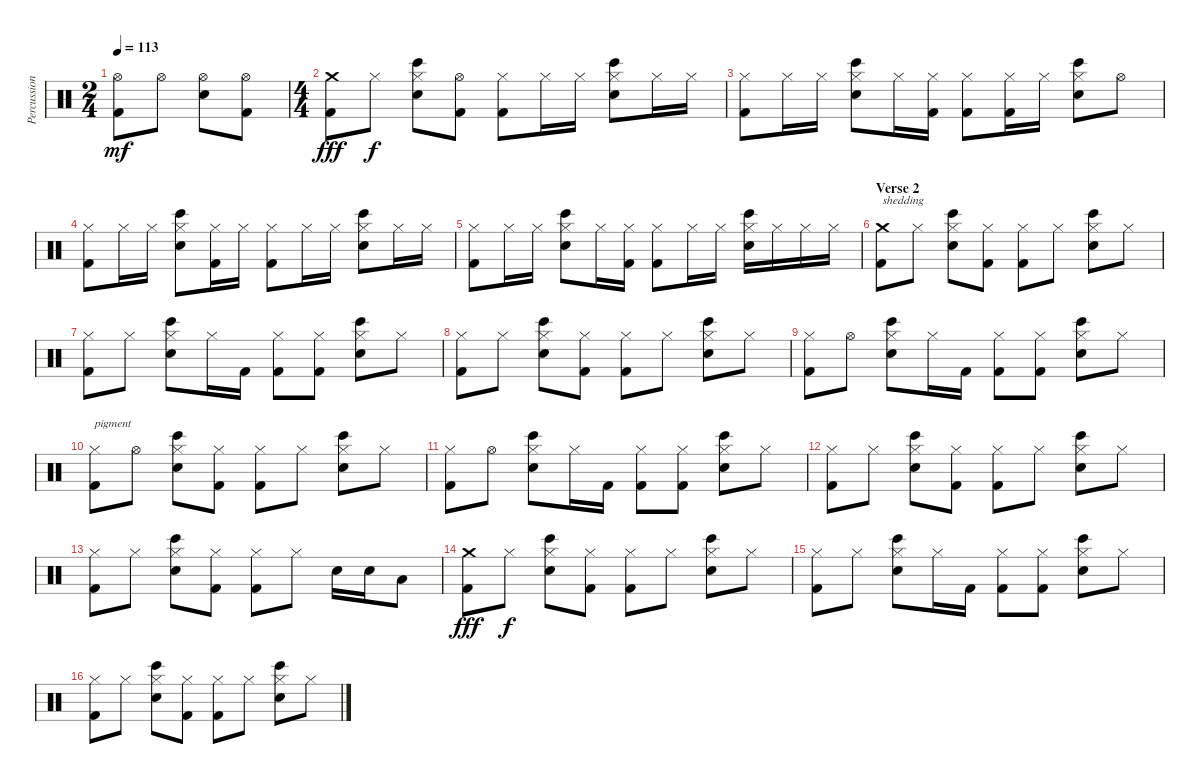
\track ("Percussion" "Percussion") {instrument percussion}
\staff {score}
\articulation defaults
\ts (2 4)
\tempo 113
\clef neutral
\ks c
("Hi-Hat (open)" "Kick (hit) 2").8{dy mf} "Hi-Hat (open)".8 ("Hi-Hat (open)" "Electric Snare (hit)").8 ("Hi-Hat (open)" "Kick (hit) 2").8 |
\ts (4 4)
("Crash medium (hit)" "Kick (hit) 2").8{dy fff} "Hi-Hat (closed)".8{dy f} ("Hi-Hat (closed)" "Electric Snare (hit)" "Bongo High (hit)").8 ("Hi-Hat (open)" "Kick (hit) 2").8 ("Hi-Hat (closed)" "Kick (hit) 2").8 "Hi-Hat (closed)".16 "Hi-Hat (closed)".16 ("Hi-Hat (closed)" "Electric Snare (hit)" "Bongo High (hit)").8 "Hi-Hat (closed)".16 "Hi-Hat (closed)".16 |
("Hi-Hat (closed)" "Kick (hit) 2").8 "Hi-Hat (closed)".16 "Hi-Hat (closed)".16 ("Hi-Hat (closed)" "Electric Snare (hit)" "Bongo High (hit)").8 "Hi-Hat (closed)".16 ("Hi-Hat (closed)" "Kick (hit) 2").16 ("Hi-Hat (closed)" "Kick (hit) 2").8 ("Hi-Hat (closed)" "Kick (hit) 2").16 "Hi-Hat (closed)".16 ("Hi-Hat (closed)" "Electric Snare (hit)" "Bongo High (hit)").8 "Hi-Hat (open)".8 |
("Hi-Hat (closed)" "Kick (hit) 2").8 "Hi-Hat (closed)".16 "Hi-Hat (closed)".16 ("Hi-Hat (closed)" "Electric Snare (hit)" "Bongo High (hit)").8 ("Hi-Hat (closed)" "Kick (hit) 2").16 "Hi-Hat (closed)".16 ("Hi-Hat (closed)" "Kick (hit) 2").8 "Hi-Hat (closed)".16 "Hi-Hat (closed)".16 ("Hi-Hat (closed)" "Electric Snare (hit)" "Bongo High (hit)").8 "Hi-Hat (closed)".16 "Hi-Hat (closed)".16 |
("Hi-Hat (closed)" "Kick (hit) 2").8 "Hi-Hat (closed)".16 "Hi-Hat (closed)".16 ("Hi-Hat (closed)" "Electric Snare (hit)" "Bongo High (hit)").8 "Hi-Hat (closed)".16 ("Hi-Hat (closed)" "Kick (hit) 2").16 ("Hi-Hat (closed)" "Kick (hit) 2").8 "Hi-Hat (closed)".16 "Hi-Hat (closed)".16 ("Hi-Hat (closed)" "Electric Snare (hit)" "Bongo High (hit)").16 "Hi-Hat (closed)".16 "Hi-Hat (closed)".16 "Hi-Hat (closed)".16 |
\section ("" "Verse 2")
("Crash medium (hit)" "Kick (hit) 2").8{txt "shedding"} "Hi-Hat (closed)".8 ("Hi-Hat (closed)" "Electric Snare (hit)" "Bongo High (hit)").8 ("Hi-Hat (closed)" "Kick (hit) 2").8 ("Hi-Hat (closed)" "Kick (hit) 2").8 "Hi-Hat (closed)".8 ("Hi-Hat (closed)" "Electric Snare (hit)" "Bongo High (hit)").8 "Hi-Hat (closed)".8 |
("Hi-Hat (closed)" "Kick (hit) 2").8 "Hi-Hat (closed)".8 ("Hi-Hat (closed)" "Electric Snare (hit)" "Bongo High (hit)").8 "Hi-Hat (closed)".16 "Kick (hit) 2".16 ("Hi-Hat (closed)" "Kick (hit) 2").8 ("Hi-Hat (closed)" "Kick (hit) 2").8 ("Hi-Hat (closed)" "Electric Snare (hit)" "Bongo High (hit)").8 "Hi-Hat (closed)".8 |
("Hi-Hat (closed)" "Kick (hit) 2").8 "Hi-Hat (closed)".8 ("Hi-Hat (closed)" "Electric Snare (hit)" "Bongo High (hit)").8 ("Hi-Hat (closed)" "Kick (hit) 2").8 ("Hi-Hat (closed)" "Kick (hit) 2").8 "Hi-Hat (closed)".8 ("Hi-Hat (closed)" "Electric Snare (hit)" "Bongo High (hit)").8 "Hi-Hat (closed)".8 |
("Hi-Hat (closed)" "Kick (hit) 2").8 "Hi-Hat (open)".8 ("Hi-Hat (closed)" "Electric Snare (hit)" "Bongo High (hit)").8 "Hi-Hat (closed)".16 "Kick (hit) 2".16 ("Hi-Hat (closed)" "Kick (hit) 2").8 ("Hi-Hat (closed)" "Kick (hit) 2").8 ("Hi-Hat (closed)" "Electric Snare (hit)" "Bongo High (hit)").8 "Hi-Hat (closed)".8 |
("Hi-Hat (closed)" "Kick (hit) 2").8{txt "pigment"} "Hi-Hat (open)".8 ("Hi-Hat (closed)" "Electric Snare (hit)" "Bongo High (hit)").8 ("Hi-Hat (closed)" "Kick (hit) 2").8 ("Hi-Hat (closed)" "Kick (hit) 2").8 "Hi-Hat (closed)".8 ("Hi-Hat (closed)" "Electric Snare (hit)" "Bongo High (hit)").8 "Hi-Hat (closed)".8 |
("Hi-Hat (closed)" "Kick (hit) 2").8 "Hi-Hat (open)".8 ("Hi-Hat (closed)" "Electric Snare (hit)" "Bongo High (hit)").8 "Hi-Hat (closed)".16 "Kick (hit) 2".16 ("Hi-Hat (closed)" "Kick (hit) 2").8 ("Hi-Hat (closed)" "Kick (hit) 2").8 ("Hi-Hat (closed)" "Electric Snare (hit)" "Bongo High (hit)").8 "Hi-Hat (closed)".8 |
("Hi-Hat (closed)" "Kick (hit) 2").8 "Hi-Hat (closed)".8 ("Hi-Hat (closed)" "Electric Snare (hit)" "Bongo High (hit)").8 ("Hi-Hat (closed)" "Kick (hit) 2").8 ("Hi-Hat (closed)" "Kick (hit) 2").8 "Hi-Hat (closed)".8 ("Hi-Hat (closed)" "Electric Snare (hit)" "Bongo High (hit)").8 "Hi-Hat (closed)".8 |
("Hi-Hat (closed)" "Kick (hit) 2").8 "Hi-Hat (closed)".8 ("Hi-Hat (closed)" "Electric Snare (hit)" "Bongo High (hit)").8 ("Hi-Hat (closed)" "Kick (hit) 2").8 ("Hi-Hat (closed)" "Kick (hit) 2").8 "Hi-Hat (closed)".8 "Electric Snare (hit)".16 "Electric Snare (hit)".16 "Low Tom (hit)".8 |
("Crash medium (hit)" "Kick (hit) 2").8{dy fff} "Hi-Hat (closed)".8{dy f} ("Hi-Hat (closed)" "Electric Snare (hit)" "Bongo High (hit)").8 ("Hi-Hat (closed)" "Kick (hit) 2").8 ("Hi-Hat (closed)" "Kick (hit) 2").8 "Hi-Hat (closed)".8 ("Hi-Hat (closed)" "Electric Snare (hit)" "Bongo High (hit)").8 "Hi-Hat (closed)".8 |
("Hi-Hat (closed)" "Kick (hit) 2").8 "Hi-Hat (closed)".8 ("Hi-Hat (closed)" "Electric Snare (hit)" "Bongo High (hit)").8 "Hi-Hat (closed)".16 "Kick (hit) 2".16 ("Hi-Hat (closed)" "Kick (hit) 2").8 ("Hi-Hat (closed)" "Kick (hit) 2").8 ("Hi-Hat (closed)" "Electric Snare (hit)" "Bongo High (hit)").8 "Hi-Hat (closed)".8 |
("Hi-Hat (closed)" "Kick (hit) 2").8 "Hi-Hat (closed)".8 ("Hi-Hat (closed)" "Electric Snare (hit)" "Bongo High (hit)").8 ("Hi-Hat (closed)" "Kick (hit) 2").8 ("Hi-Hat (closed)" "Kick (hit) 2").8 "Hi-Hat (closed)".8 ("Hi-Hat (closed)" "Electric Snare (hit)" "Bongo High (hit)").8 "Hi-Hat (closed)".8
